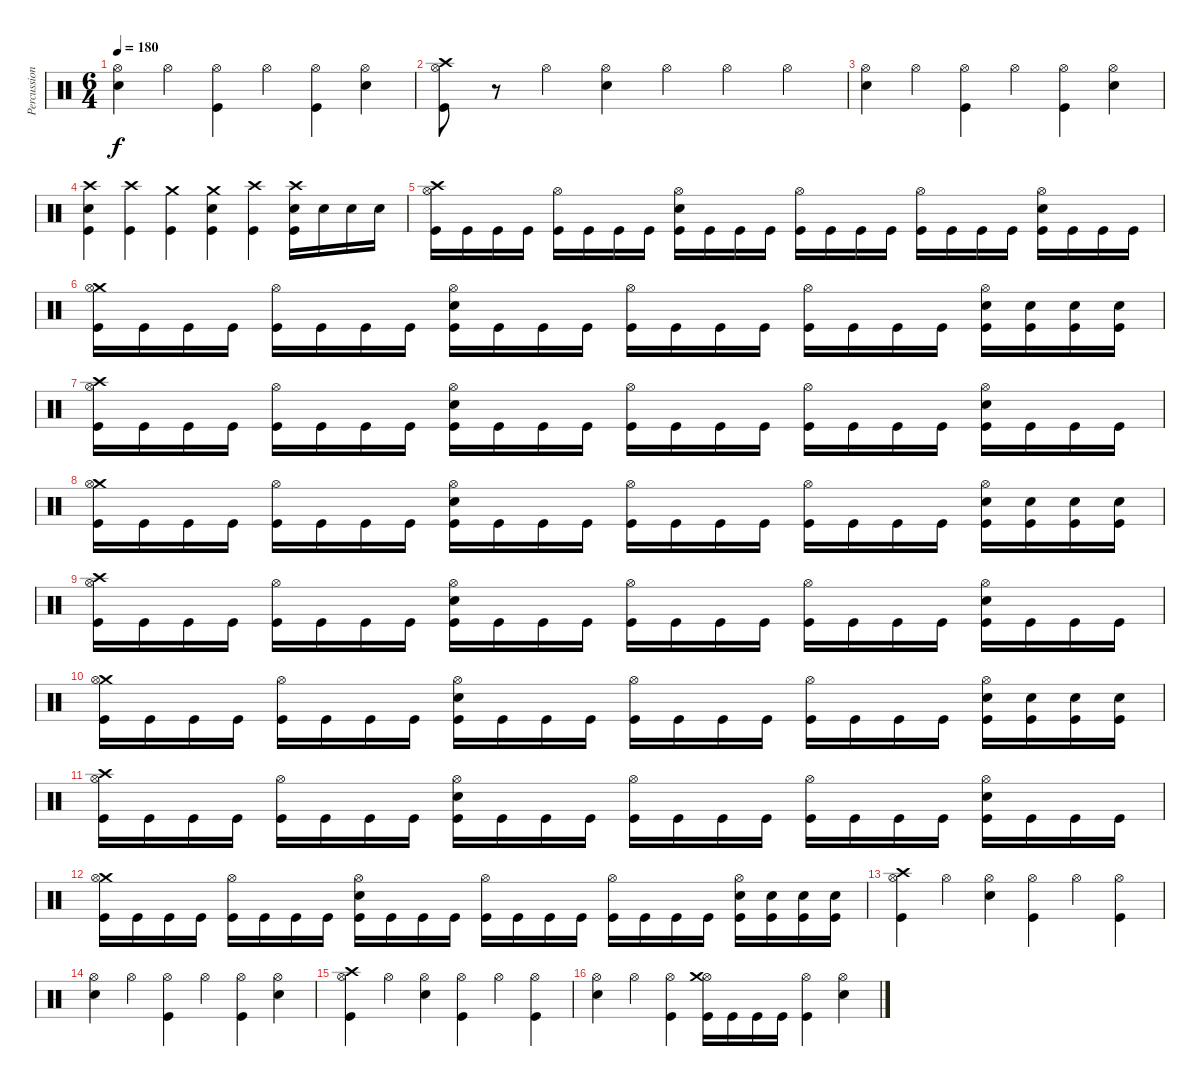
\track ("Percussion" "Percussion") {instrument percussion}
\staff {score}
\articulation defaults
\ts (6 4)
\tempo 180
\clef neutral
\ks c
("Hi-Hat (open)" "Electric Snare (hit)").4{dy f} "Hi-Hat (open)".4 ("Hi-Hat (open)" "Kick (hit)").4 "Hi-Hat (open)".4 ("Hi-Hat (open)" "Kick (hit)").4 ("Hi-Hat (open)" "Electric Snare (hit)").4 |
("Crash high (hit)" "Hi-Hat (open)" "Kick (hit)").8 r.8 "Hi-Hat (open)".4 ("Hi-Hat (open)" "Electric Snare (hit)").4 "Hi-Hat (open)".4 "Hi-Hat (open)".4 "Hi-Hat (open)".4 |
("Hi-Hat (open)" "Electric Snare (hit)").4 "Hi-Hat (open)".4 ("Hi-Hat (open)" "Kick (hit)").4 "Hi-Hat (open)".4 ("Hi-Hat (open)" "Kick (hit)").4 ("Hi-Hat (open)" "Electric Snare (hit)").4 |
("Electric Snare (hit)" "Crash high (hit)" "Kick (hit)").4 ("Crash high (hit)" "Kick (hit)").4 ("Crash medium (hit)" "Kick (hit)").4 ("Crash medium (hit)" "Electric Snare (hit)" "Kick (hit)").4 ("Crash high (hit)" "Kick (hit)").4 ("Crash high (hit)" "Electric Snare (hit)" "Kick (hit)").16 "Electric Snare (hit)".16 "Electric Snare (hit)".16 "Electric Snare (hit)".16 |
("Crash high (hit)" "Hi-Hat (open)" "Kick (hit)").16 "Kick (hit)".16 "Kick (hit)".16 "Kick (hit)".16 ("Hi-Hat (open)" "Kick (hit)").16 "Kick (hit)".16 "Kick (hit)".16 "Kick (hit)".16 ("Electric Snare (hit)" "Hi-Hat (open)" "Kick (hit)").16 "Kick (hit)".16 "Kick (hit)".16 "Kick (hit)".16 ("Hi-Hat (open)" "Kick (hit)").16 "Kick (hit)".16 "Kick (hit)".16 "Kick (hit)".16 ("Hi-Hat (open)" "Kick (hit)").16 "Kick (hit)".16 "Kick (hit)".16 "Kick (hit)".16 ("Electric Snare (hit)" "Hi-Hat (open)" "Kick (hit)").16 "Kick (hit)".16 "Kick (hit)".16 "Kick (hit)".16 |
("Crash medium (hit)" "Hi-Hat (open)" "Kick (hit)").16 "Kick (hit)".16 "Kick (hit)".16 "Kick (hit)".16 ("Hi-Hat (open)" "Kick (hit)").16 "Kick (hit)".16 "Kick (hit)".16 "Kick (hit)".16 ("Electric Snare (hit)" "Hi-Hat (open)" "Kick (hit)").16 "Kick (hit)".16 "Kick (hit)".16 "Kick (hit)".16 ("Hi-Hat (open)" "Kick (hit)").16 "Kick (hit)".16 "Kick (hit)".16 "Kick (hit)".16 ("Hi-Hat (open)" "Kick (hit)").16 "Kick (hit)".16 "Kick (hit)".16 "Kick (hit)".16 ("Electric Snare (hit)" "Hi-Hat (open)" "Kick (hit)").16 ("Electric Snare (hit)" "Kick (hit)").16 ("Electric Snare (hit)" "Kick (hit)").16 ("Electric Snare (hit)" "Kick (hit)").16 |
("Crash high (hit)" "Hi-Hat (open)" "Kick (hit)").16 "Kick (hit)".16 "Kick (hit)".16 "Kick (hit)".16 ("Hi-Hat (open)" "Kick (hit)").16 "Kick (hit)".16 "Kick (hit)".16 "Kick (hit)".16 ("Electric Snare (hit)" "Hi-Hat (open)" "Kick (hit)").16 "Kick (hit)".16 "Kick (hit)".16 "Kick (hit)".16 ("Hi-Hat (open)" "Kick (hit)").16 "Kick (hit)".16 "Kick (hit)".16 "Kick (hit)".16 ("Hi-Hat (open)" "Kick (hit)").16 "Kick (hit)".16 "Kick (hit)".16 "Kick (hit)".16 ("Electric Snare (hit)" "Hi-Hat (open)" "Kick (hit)").16 "Kick (hit)".16 "Kick (hit)".16 "Kick (hit)".16 |
("Crash medium (hit)" "Hi-Hat (open)" "Kick (hit)").16 "Kick (hit)".16 "Kick (hit)".16 "Kick (hit)".16 ("Hi-Hat (open)" "Kick (hit)").16 "Kick (hit)".16 "Kick (hit)".16 "Kick (hit)".16 ("Electric Snare (hit)" "Hi-Hat (open)" "Kick (hit)").16 "Kick (hit)".16 "Kick (hit)".16 "Kick (hit)".16 ("Hi-Hat (open)" "Kick (hit)").16 "Kick (hit)".16 "Kick (hit)".16 "Kick (hit)".16 ("Hi-Hat (open)" "Kick (hit)").16 "Kick (hit)".16 "Kick (hit)".16 "Kick (hit)".16 ("Electric Snare (hit)" "Hi-Hat (open)" "Kick (hit)").16 ("Electric Snare (hit)" "Kick (hit)").16 ("Electric Snare (hit)" "Kick (hit)").16 ("Electric Snare (hit)" "Kick (hit)").16 |
("Crash high (hit)" "Hi-Hat (open)" "Kick (hit)").16 "Kick (hit)".16 "Kick (hit)".16 "Kick (hit)".16 ("Hi-Hat (open)" "Kick (hit)").16 "Kick (hit)".16 "Kick (hit)".16 "Kick (hit)".16 ("Electric Snare (hit)" "Hi-Hat (open)" "Kick (hit)").16 "Kick (hit)".16 "Kick (hit)".16 "Kick (hit)".16 ("Hi-Hat (open)" "Kick (hit)").16 "Kick (hit)".16 "Kick (hit)".16 "Kick (hit)".16 ("Hi-Hat (open)" "Kick (hit)").16 "Kick (hit)".16 "Kick (hit)".16 "Kick (hit)".16 ("Electric Snare (hit)" "Hi-Hat (open)" "Kick (hit)").16 "Kick (hit)".16 "Kick (hit)".16 "Kick (hit)".16 |
("Crash medium (hit)" "Hi-Hat (open)" "Kick (hit)").16 "Kick (hit)".16 "Kick (hit)".16 "Kick (hit)".16 ("Hi-Hat (open)" "Kick (hit)").16 "Kick (hit)".16 "Kick (hit)".16 "Kick (hit)".16 ("Electric Snare (hit)" "Hi-Hat (open)" "Kick (hit)").16 "Kick (hit)".16 "Kick (hit)".16 "Kick (hit)".16 ("Hi-Hat (open)" "Kick (hit)").16 "Kick (hit)".16 "Kick (hit)".16 "Kick (hit)".16 ("Hi-Hat (open)" "Kick (hit)").16 "Kick (hit)".16 "Kick (hit)".16 "Kick (hit)".16 ("Electric Snare (hit)" "Hi-Hat (open)" "Kick (hit)").16 ("Electric Snare (hit)" "Kick (hit)").16 ("Electric Snare (hit)" "Kick (hit)").16 ("Electric Snare (hit)" "Kick (hit)").16 |
("Crash high (hit)" "Hi-Hat (open)" "Kick (hit)").16 "Kick (hit)".16 "Kick (hit)".16 "Kick (hit)".16 ("Hi-Hat (open)" "Kick (hit)").16 "Kick (hit)".16 "Kick (hit)".16 "Kick (hit)".16 ("Electric Snare (hit)" "Hi-Hat (open)" "Kick (hit)").16 "Kick (hit)".16 "Kick (hit)".16 "Kick (hit)".16 ("Hi-Hat (open)" "Kick (hit)").16 "Kick (hit)".16 "Kick (hit)".16 "Kick (hit)".16 ("Hi-Hat (open)" "Kick (hit)").16 "Kick (hit)".16 "Kick (hit)".16 "Kick (hit)".16 ("Electric Snare (hit)" "Hi-Hat (open)" "Kick (hit)").16 "Kick (hit)".16 "Kick (hit)".16 "Kick (hit)".16 |
("Crash medium (hit)" "Hi-Hat (open)" "Kick (hit)").16 "Kick (hit)".16 "Kick (hit)".16 "Kick (hit)".16 ("Hi-Hat (open)" "Kick (hit)").16 "Kick (hit)".16 "Kick (hit)".16 "Kick (hit)".16 ("Electric Snare (hit)" "Hi-Hat (open)" "Kick (hit)").16 "Kick (hit)".16 "Kick (hit)".16 "Kick (hit)".16 ("Hi-Hat (open)" "Kick (hit)").16 "Kick (hit)".16 "Kick (hit)".16 "Kick (hit)".16 ("Hi-Hat (open)" "Kick (hit)").16 "Kick (hit)".16 "Kick (hit)".16 "Kick (hit)".16 ("Electric Snare (hit)" "Hi-Hat (open)" "Kick (hit)").16 ("Electric Snare (hit)" "Kick (hit)").16 ("Electric Snare (hit)" "Kick (hit)").16 ("Electric Snare (hit)" "Kick (hit)").16 |
("Crash high (hit)" "Hi-Hat (open)" "Kick (hit)").4 "Hi-Hat (open)".4 ("Hi-Hat (open)" "Electric Snare (hit)").4 ("Hi-Hat (open)" "Kick (hit)").4 "Hi-Hat (open)".4 ("Hi-Hat (open)" "Kick (hit)").4 |
("Hi-Hat (open)" "Electric Snare (hit)").4 "Hi-Hat (open)".4 ("Hi-Hat (open)" "Kick (hit)").4 "Hi-Hat (open)".4 ("Hi-Hat (open)" "Kick (hit)").4 ("Hi-Hat (open)" "Electric Snare (hit)").4 |
("Crash high (hit)" "Hi-Hat (open)" "Kick (hit)").4 "Hi-Hat (open)".4 ("Hi-Hat (open)" "Electric Snare (hit)").4 ("Hi-Hat (open)" "Kick (hit)").4 "Hi-Hat (open)".4 ("Hi-Hat (open)" "Kick (hit)").4 |
("Hi-Hat (open)" "Electric Snare (hit)").4 "Hi-Hat (open)".4 ("Hi-Hat (open)" "Kick (hit)").4 ("Hi-Hat (open)" "Crash medium (hit)" "Kick (hit)").16 "Kick (hit)".16 "Kick (hit)".16 "Kick (hit)".16 ("Hi-Hat (open)" "Kick (hit)").4 ("Hi-Hat (open)" "Electric Snare (hit)").4
